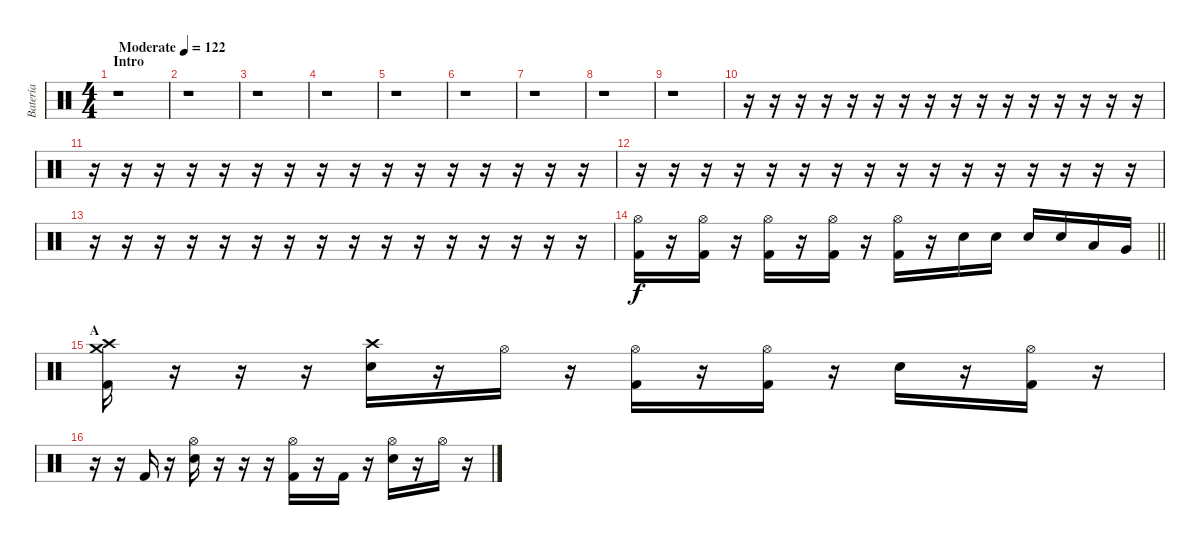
\track ("Batería" "Batería") {instrument percussion}
\staff {score}
\articulation defaults
\ts (4 4)
\section ("" "Intro")
\tempo (122 "Moderate")
\clef neutral
\ks c
r.1{dy f} |
r.1 |
r.1 |
r.1 |
r.1 |
r.1 |
r.1 |
r.1 |
r.1 |
r.16 r.16 r.16 r.16 r.16 r.16 r.16 r.16 r.16 r.16 r.16 r.16 r.16 r.16 r.16 r.16 |
r.16 r.16 r.16 r.16 r.16 r.16 r.16 r.16 r.16 r.16 r.16 r.16 r.16 r.16 r.16 r.16 |
r.16 r.16 r.16 r.16 r.16 r.16 r.16 r.16 r.16 r.16 r.16 r.16 r.16 r.16 r.16 r.16 |
r.16 r.16 r.16 r.16 r.16 r.16 r.16 r.16 r.16 r.16 r.16 r.16 r.16 r.16 r.16 r.16 |
\barLineRight lightlight
("Kick (hit) 2" "Hi-Hat (open)").16 r.16 ("Kick (hit) 2" "Hi-Hat (open)").16 r.16 ("Kick (hit) 2" "Hi-Hat (open)").16 r.16 ("Kick (hit) 2" "Hi-Hat (open)").16 r.16 ("Kick (hit) 2" "Hi-Hat (open)").16 r.16 "Electric Snare (hit)".16 "Electric Snare (hit)".16 "Electric Snare (hit)".16 "Electric Snare (hit)".16 "Low Tom (hit)".16 "Very Low Tom (hit)".16 |
\section ("" "A")
("Crash high (hit)" "Kick (hit) 2" "Crash medium (hit)").16 r.16 r.16 r.16 ("Electric Snare (hit)" "Crash high (hit)").16 r.16 "Hi-Hat (open)".16 r.16 ("Kick (hit) 2" "Hi-Hat (open)").16 r.16 ("Kick (hit) 2" "Hi-Hat (open)").16 r.16 "Electric Snare (hit)".16 r.16 ("Kick (hit) 2" "Hi-Hat (open)").16 r.16 |
r.16 r.16 "Kick (hit) 2".16 r.16 ("Electric Snare (hit)" "Hi-Hat (open)").16 r.16 r.16 r.16 ("Kick (hit) 2" "Hi-Hat (open)").16 r.16 "Kick (hit) 2".16 r.16 ("Electric Snare (hit)" "Hi-Hat (open)").16 r.16 "Hi-Hat (open)".16 r.16
